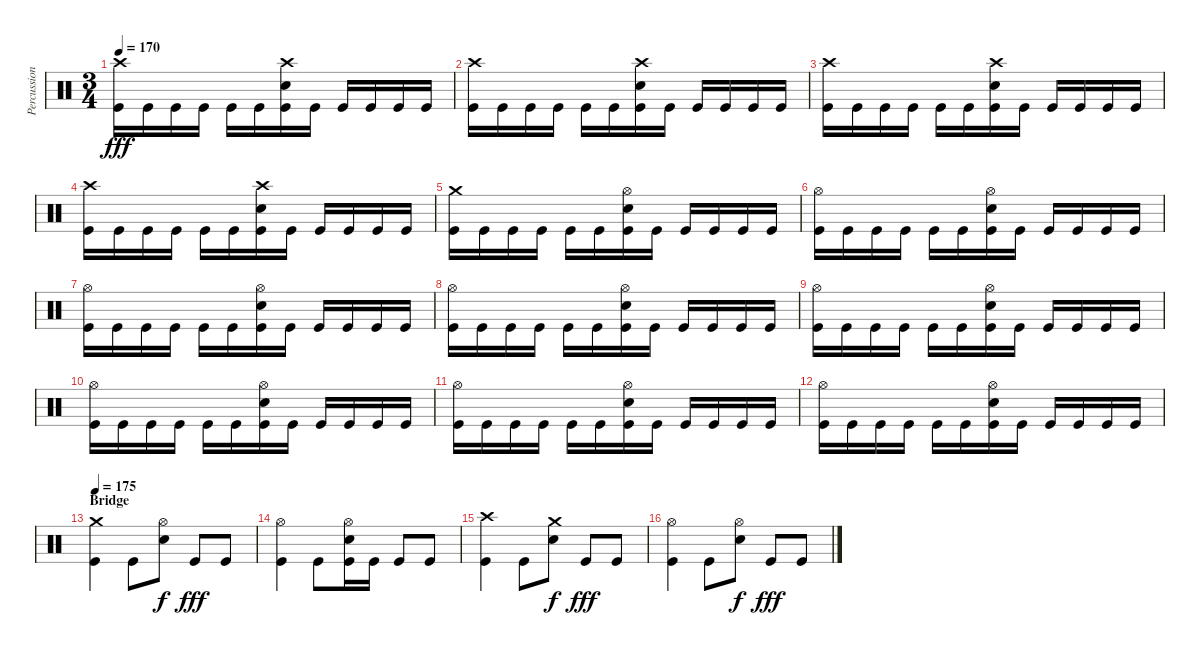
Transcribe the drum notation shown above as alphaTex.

\track ("Percussion" "Percussion") {instrument percussion}
\staff {score}
\articulation defaults
\ts (3 4)
\tempo 170
\clef neutral
\ks c
("Crash high (hit)" "Kick (hit)").16{dy fff} "Kick (hit)".16 "Kick (hit)".16 "Kick (hit)".16 "Kick (hit)".16 "Kick (hit)".16 ("Crash high (hit)" "Electric Snare (hit)" "Kick (hit)").16 "Kick (hit)".16 "Kick (hit)".16 "Kick (hit)".16 "Kick (hit)".16 "Kick (hit)".16 |
("Crash high (hit)" "Kick (hit)").16 "Kick (hit)".16 "Kick (hit)".16 "Kick (hit)".16 "Kick (hit)".16 "Kick (hit)".16 ("Crash high (hit)" "Electric Snare (hit)" "Kick (hit)").16 "Kick (hit)".16 "Kick (hit)".16 "Kick (hit)".16 "Kick (hit)".16 "Kick (hit)".16 |
("Crash high (hit)" "Kick (hit)").16 "Kick (hit)".16 "Kick (hit)".16 "Kick (hit)".16 "Kick (hit)".16 "Kick (hit)".16 ("Crash high (hit)" "Electric Snare (hit)" "Kick (hit)").16 "Kick (hit)".16 "Kick (hit)".16 "Kick (hit)".16 "Kick (hit)".16 "Kick (hit)".16 |
("Crash high (hit)" "Kick (hit)").16 "Kick (hit)".16 "Kick (hit)".16 "Kick (hit)".16 "Kick (hit)".16 "Kick (hit)".16 ("Crash high (hit)" "Electric Snare (hit)" "Kick (hit)").16 "Kick (hit)".16 "Kick (hit)".16 "Kick (hit)".16 "Kick (hit)".16 "Kick (hit)".16 |
("Crash medium (hit)" "Kick (hit)").16 "Kick (hit)".16 "Kick (hit)".16 "Kick (hit)".16 "Kick (hit)".16 "Kick (hit)".16 ("Hi-Hat (open)" "Electric Snare (hit)" "Kick (hit)").16 "Kick (hit)".16 "Kick (hit)".16 "Kick (hit)".16 "Kick (hit)".16 "Kick (hit)".16 |
("Hi-Hat (open)" "Kick (hit)").16 "Kick (hit)".16 "Kick (hit)".16 "Kick (hit)".16 "Kick (hit)".16 "Kick (hit)".16 ("Hi-Hat (open)" "Electric Snare (hit)" "Kick (hit)").16 "Kick (hit)".16 "Kick (hit)".16 "Kick (hit)".16 "Kick (hit)".16 "Kick (hit)".16 |
("Hi-Hat (open)" "Kick (hit)").16 "Kick (hit)".16 "Kick (hit)".16 "Kick (hit)".16 "Kick (hit)".16 "Kick (hit)".16 ("Hi-Hat (open)" "Electric Snare (hit)" "Kick (hit)").16 "Kick (hit)".16 "Kick (hit)".16 "Kick (hit)".16 "Kick (hit)".16 "Kick (hit)".16 |
("Hi-Hat (open)" "Kick (hit)").16 "Kick (hit)".16 "Kick (hit)".16 "Kick (hit)".16 "Kick (hit)".16 "Kick (hit)".16 ("Hi-Hat (open)" "Electric Snare (hit)" "Kick (hit)").16 "Kick (hit)".16 "Kick (hit)".16 "Kick (hit)".16 "Kick (hit)".16 "Kick (hit)".16 |
("Hi-Hat (open)" "Kick (hit)").16 "Kick (hit)".16 "Kick (hit)".16 "Kick (hit)".16 "Kick (hit)".16 "Kick (hit)".16 ("Hi-Hat (open)" "Electric Snare (hit)" "Kick (hit)").16 "Kick (hit)".16 "Kick (hit)".16 "Kick (hit)".16 "Kick (hit)".16 "Kick (hit)".16 |
("Hi-Hat (open)" "Kick (hit)").16 "Kick (hit)".16 "Kick (hit)".16 "Kick (hit)".16 "Kick (hit)".16 "Kick (hit)".16 ("Hi-Hat (open)" "Electric Snare (hit)" "Kick (hit)").16 "Kick (hit)".16 "Kick (hit)".16 "Kick (hit)".16 "Kick (hit)".16 "Kick (hit)".16 |
("Hi-Hat (open)" "Kick (hit)").16 "Kick (hit)".16 "Kick (hit)".16 "Kick (hit)".16 "Kick (hit)".16 "Kick (hit)".16 ("Hi-Hat (open)" "Electric Snare (hit)" "Kick (hit)").16 "Kick (hit)".16 "Kick (hit)".16 "Kick (hit)".16 "Kick (hit)".16 "Kick (hit)".16 |
("Hi-Hat (open)" "Kick (hit)").16 "Kick (hit)".16 "Kick (hit)".16 "Kick (hit)".16 "Kick (hit)".16 "Kick (hit)".16 ("Hi-Hat (open)" "Electric Snare (hit)" "Kick (hit)").16 "Kick (hit)".16 "Kick (hit)".16 "Kick (hit)".16 "Kick (hit)".16 "Kick (hit)".16 |
\section ("" "Bridge")
\tempo 175
("Crash medium (hit)" "Kick (hit)").4 "Kick (hit)".8 ("Hi-Hat (open)" "Electric Snare (hit)").8{dy f} "Kick (hit)".8{dy fff} "Kick (hit)".8 |
("Hi-Hat (open)" "Kick (hit)").4 "Kick (hit)".8 ("Hi-Hat (open)" "Electric Snare (hit)" "Kick (hit)").16 "Kick (hit)".16 "Kick (hit)".8 "Kick (hit)".8 |
("Crash high (hit)" "Kick (hit)").4 "Kick (hit)".8 ("Crash medium (hit)" "Electric Snare (hit)").8{dy f} "Kick (hit)".8{dy fff} "Kick (hit)".8 |
("Hi-Hat (open)" "Kick (hit)").4 "Kick (hit)".8 ("Hi-Hat (open)" "Electric Snare (hit)").8{dy f} "Kick (hit)".8{dy fff} "Kick (hit)".8
